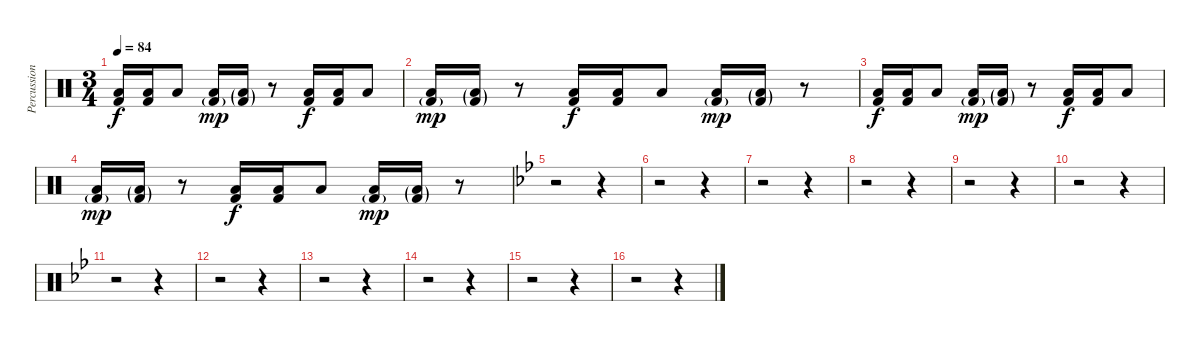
\track ("Percussion" "Percussion") {instrument percussion}
\staff {score}
\articulation defaults
\ts (3 4)
\tempo 84
\clef neutral
\ks c
("Low Tom (hit)" "Kick (hit) 2").16{dy f} ("Low Tom (hit)" "Kick (hit) 2").16 "Low Tom (hit)".8 ("Low Tom (hit)" "Kick (hit) 2"{g}).16{dy mp} ("Low Tom (hit)"{g} "Kick (hit) 2"{g}).16 r.8 ("Low Tom (hit)" "Kick (hit) 2").16{dy f} ("Low Tom (hit)" "Kick (hit) 2").16 "Low Tom (hit)".8 |
("Low Tom (hit)" "Kick (hit) 2"{g}).16{dy mp} ("Low Tom (hit)"{g} "Kick (hit) 2"{g}).16 r.8 ("Low Tom (hit)" "Kick (hit) 2").16{dy f} ("Low Tom (hit)" "Kick (hit) 2").16 "Low Tom (hit)".8 ("Low Tom (hit)" "Kick (hit) 2"{g}).16{dy mp} ("Low Tom (hit)"{g} "Kick (hit) 2"{g}).16 r.8 |
("Low Tom (hit)" "Kick (hit) 2").16{dy f} ("Low Tom (hit)" "Kick (hit) 2").16 "Low Tom (hit)".8 ("Low Tom (hit)" "Kick (hit) 2"{g}).16{dy mp} ("Low Tom (hit)"{g} "Kick (hit) 2"{g}).16 r.8 ("Low Tom (hit)" "Kick (hit) 2").16{dy f} ("Low Tom (hit)" "Kick (hit) 2").16 "Low Tom (hit)".8 |
("Low Tom (hit)" "Kick (hit) 2"{g}).16{dy mp} ("Low Tom (hit)"{g} "Kick (hit) 2"{g}).16 r.8 ("Low Tom (hit)" "Kick (hit) 2").16{dy f} ("Low Tom (hit)" "Kick (hit) 2").16 "Low Tom (hit)".8 ("Low Tom (hit)" "Kick (hit) 2"{g}).16{dy mp} ("Low Tom (hit)"{g} "Kick (hit) 2"{g}).16 r.8 |
\ks gminor
r.2 r.4 |
r.2 r.4 |
r.2 r.4 |
r.2 r.4 |
r.2 r.4 |
r.2 r.4 |
r.2 r.4 |
r.2 r.4 |
r.2 r.4 |
r.2 r.4 |
r.2 r.4 |
r.2 r.4
